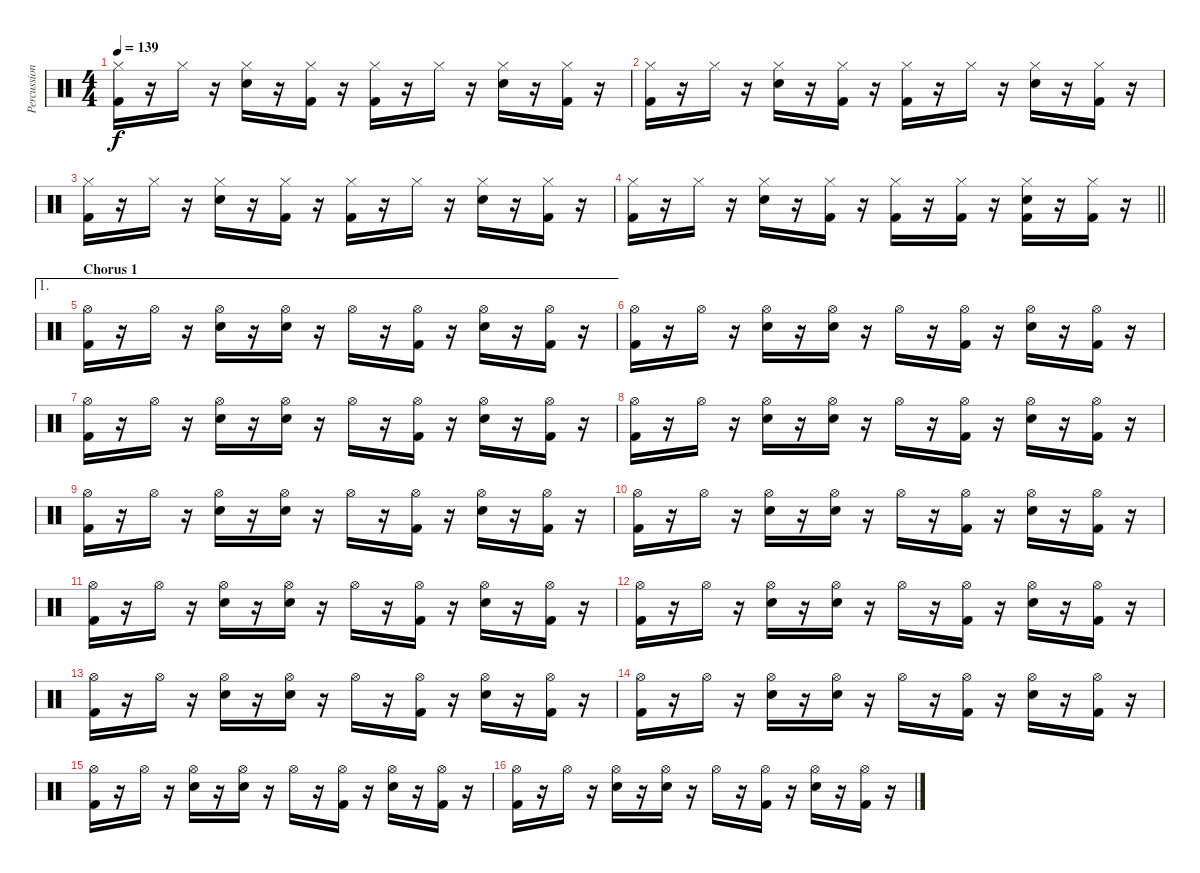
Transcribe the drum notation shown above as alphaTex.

\track ("Percussion" "Percussion") {instrument percussion}
\staff {score}
\articulation defaults
\ts (4 4)
\tempo 139
\clef neutral
\ks c
("Hi-Hat (closed)" "Kick (hit) 2").16{dy f} r.16 "Hi-Hat (closed)".16 r.16 ("Hi-Hat (closed)" "Snare (hit) 2").16 r.16 ("Hi-Hat (closed)" "Kick (hit) 2").16 r.16 ("Hi-Hat (closed)" "Kick (hit) 2").16 r.16 "Hi-Hat (closed)".16 r.16 ("Hi-Hat (closed)" "Snare (hit) 2").16 r.16 ("Hi-Hat (closed)" "Kick (hit) 2").16 r.16 |
("Hi-Hat (closed)" "Kick (hit) 2").16 r.16 "Hi-Hat (closed)".16 r.16 ("Hi-Hat (closed)" "Snare (hit) 2").16 r.16 ("Hi-Hat (closed)" "Kick (hit) 2").16 r.16 ("Hi-Hat (closed)" "Kick (hit) 2").16 r.16 "Hi-Hat (closed)".16 r.16 ("Hi-Hat (closed)" "Snare (hit) 2").16 r.16 ("Hi-Hat (closed)" "Kick (hit) 2").16 r.16 |
("Hi-Hat (closed)" "Kick (hit) 2").16 r.16 "Hi-Hat (closed)".16 r.16 ("Hi-Hat (closed)" "Snare (hit) 2").16 r.16 ("Hi-Hat (closed)" "Kick (hit) 2").16 r.16 ("Hi-Hat (closed)" "Kick (hit) 2").16 r.16 "Hi-Hat (closed)".16 r.16 ("Hi-Hat (closed)" "Snare (hit) 2").16 r.16 ("Hi-Hat (closed)" "Kick (hit) 2").16 r.16 |
\barLineRight lightlight
("Hi-Hat (closed)" "Kick (hit) 2").16 r.16 "Hi-Hat (closed)".16 r.16 ("Hi-Hat (closed)" "Snare (hit) 2").16 r.16 ("Hi-Hat (closed)" "Kick (hit) 2").16 r.16 ("Hi-Hat (closed)" "Kick (hit) 2").16 r.16 ("Hi-Hat (closed)" "Kick (hit) 2").16 r.16 ("Hi-Hat (closed)" "Snare (hit) 2" "Kick (hit) 2").16 r.16 ("Hi-Hat (closed)" "Kick (hit) 2").16 r.16 |
\ae 1
\section ("" "Chorus 1")
("Hi-Hat (open)" "Kick (hit) 2").16 r.16 "Hi-Hat (open)".16 r.16 ("Hi-Hat (open)" "Snare (hit) 2").16 r.16 ("Hi-Hat (open)" "Snare (hit) 2").16 r.16 "Hi-Hat (open)".16 r.16 ("Hi-Hat (open)" "Kick (hit) 2").16 r.16 ("Hi-Hat (open)" "Snare (hit) 2").16 r.16 ("Hi-Hat (open)" "Kick (hit) 2").16 r.16 |
("Hi-Hat (open)" "Kick (hit) 2").16 r.16 "Hi-Hat (open)".16 r.16 ("Hi-Hat (open)" "Snare (hit) 2").16 r.16 ("Hi-Hat (open)" "Snare (hit) 2").16 r.16 "Hi-Hat (open)".16 r.16 ("Hi-Hat (open)" "Kick (hit) 2").16 r.16 ("Hi-Hat (open)" "Snare (hit) 2").16 r.16 ("Hi-Hat (open)" "Kick (hit) 2").16 r.16 |
("Hi-Hat (open)" "Kick (hit) 2").16 r.16 "Hi-Hat (open)".16 r.16 ("Hi-Hat (open)" "Snare (hit) 2").16 r.16 ("Hi-Hat (open)" "Snare (hit) 2").16 r.16 "Hi-Hat (open)".16 r.16 ("Hi-Hat (open)" "Kick (hit) 2").16 r.16 ("Hi-Hat (open)" "Snare (hit) 2").16 r.16 ("Hi-Hat (open)" "Kick (hit) 2").16 r.16 |
("Hi-Hat (open)" "Kick (hit) 2").16 r.16 "Hi-Hat (open)".16 r.16 ("Hi-Hat (open)" "Snare (hit) 2").16 r.16 ("Hi-Hat (open)" "Snare (hit) 2").16 r.16 "Hi-Hat (open)".16 r.16 ("Hi-Hat (open)" "Kick (hit) 2").16 r.16 ("Hi-Hat (open)" "Snare (hit) 2").16 r.16 ("Hi-Hat (open)" "Kick (hit) 2").16 r.16 |
("Hi-Hat (open)" "Kick (hit) 2").16 r.16 "Hi-Hat (open)".16 r.16 ("Hi-Hat (open)" "Snare (hit) 2").16 r.16 ("Hi-Hat (open)" "Snare (hit) 2").16 r.16 "Hi-Hat (open)".16 r.16 ("Hi-Hat (open)" "Kick (hit) 2").16 r.16 ("Hi-Hat (open)" "Snare (hit) 2").16 r.16 ("Hi-Hat (open)" "Kick (hit) 2").16 r.16 |
("Hi-Hat (open)" "Kick (hit) 2").16 r.16 "Hi-Hat (open)".16 r.16 ("Hi-Hat (open)" "Snare (hit) 2").16 r.16 ("Hi-Hat (open)" "Snare (hit) 2").16 r.16 "Hi-Hat (open)".16 r.16 ("Hi-Hat (open)" "Kick (hit) 2").16 r.16 ("Hi-Hat (open)" "Snare (hit) 2").16 r.16 ("Hi-Hat (open)" "Kick (hit) 2").16 r.16 |
("Hi-Hat (open)" "Kick (hit) 2").16 r.16 "Hi-Hat (open)".16 r.16 ("Hi-Hat (open)" "Snare (hit) 2").16 r.16 ("Hi-Hat (open)" "Snare (hit) 2").16 r.16 "Hi-Hat (open)".16 r.16 ("Hi-Hat (open)" "Kick (hit) 2").16 r.16 ("Hi-Hat (open)" "Snare (hit) 2").16 r.16 ("Hi-Hat (open)" "Kick (hit) 2").16 r.16 |
("Hi-Hat (open)" "Kick (hit) 2").16 r.16 "Hi-Hat (open)".16 r.16 ("Hi-Hat (open)" "Snare (hit) 2").16 r.16 ("Hi-Hat (open)" "Snare (hit) 2").16 r.16 "Hi-Hat (open)".16 r.16 ("Hi-Hat (open)" "Kick (hit) 2").16 r.16 ("Hi-Hat (open)" "Snare (hit) 2").16 r.16 ("Hi-Hat (open)" "Kick (hit) 2").16 r.16 |
("Hi-Hat (open)" "Kick (hit) 2").16 r.16 "Hi-Hat (open)".16 r.16 ("Hi-Hat (open)" "Snare (hit) 2").16 r.16 ("Hi-Hat (open)" "Snare (hit) 2").16 r.16 "Hi-Hat (open)".16 r.16 ("Hi-Hat (open)" "Kick (hit) 2").16 r.16 ("Hi-Hat (open)" "Snare (hit) 2").16 r.16 ("Hi-Hat (open)" "Kick (hit) 2").16 r.16 |
("Hi-Hat (open)" "Kick (hit) 2").16 r.16 "Hi-Hat (open)".16 r.16 ("Hi-Hat (open)" "Snare (hit) 2").16 r.16 ("Hi-Hat (open)" "Snare (hit) 2").16 r.16 "Hi-Hat (open)".16 r.16 ("Hi-Hat (open)" "Kick (hit) 2").16 r.16 ("Hi-Hat (open)" "Snare (hit) 2").16 r.16 ("Hi-Hat (open)" "Kick (hit) 2").16 r.16 |
("Hi-Hat (open)" "Kick (hit) 2").16 r.16 "Hi-Hat (open)".16 r.16 ("Hi-Hat (open)" "Snare (hit) 2").16 r.16 ("Hi-Hat (open)" "Snare (hit) 2").16 r.16 "Hi-Hat (open)".16 r.16 ("Hi-Hat (open)" "Kick (hit) 2").16 r.16 ("Hi-Hat (open)" "Snare (hit) 2").16 r.16 ("Hi-Hat (open)" "Kick (hit) 2").16 r.16 |
("Hi-Hat (open)" "Kick (hit) 2").16 r.16 "Hi-Hat (open)".16 r.16 ("Hi-Hat (open)" "Snare (hit) 2").16 r.16 ("Hi-Hat (open)" "Snare (hit) 2").16 r.16 "Hi-Hat (open)".16 r.16 ("Hi-Hat (open)" "Kick (hit) 2").16 r.16 ("Hi-Hat (open)" "Snare (hit) 2").16 r.16 ("Hi-Hat (open)" "Kick (hit) 2").16 r.16
